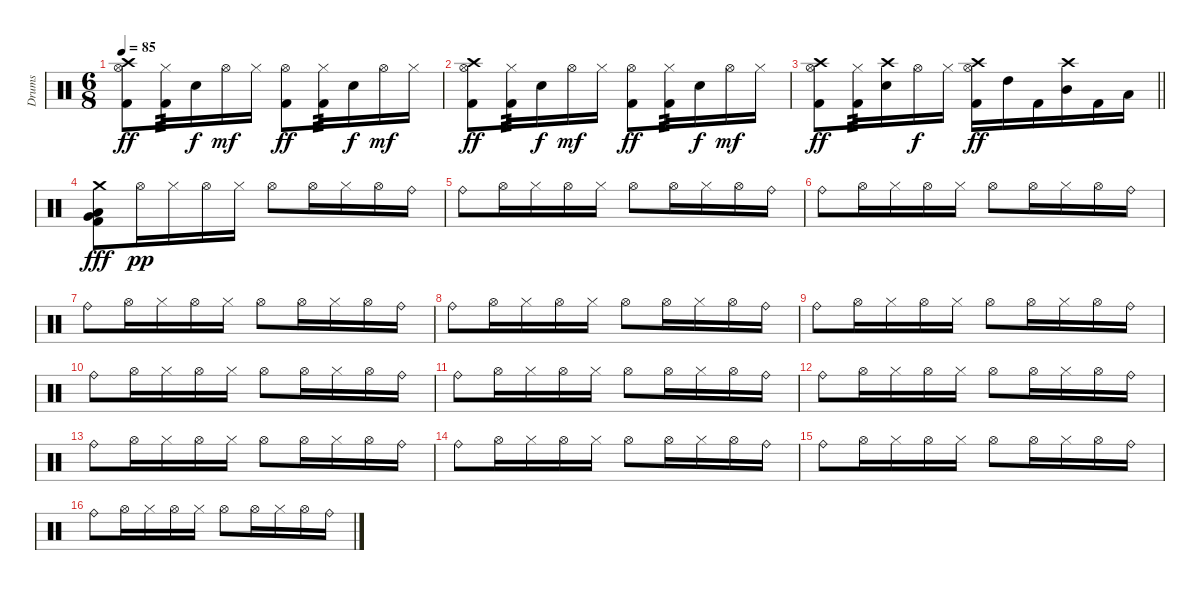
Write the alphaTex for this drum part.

\track ("Drums" "Drums") {instrument percussion}
\staff {score}
\articulation defaults
\ts (6 8)
\tempo 85
\clef neutral
\ks c
("Crash high (hit)" "Hi-Hat (open)" "Kick (hit) 2").8{dy ff} ("Hi-Hat (closed)" "Kick (hit) 2").16{tp 3} "Snare (hit) 2".16{dy f} "Hi-Hat (open)".16{dy mf} "Hi-Hat (closed)".16 ("Hi-Hat (open)" "Kick (hit) 2").8{dy ff} ("Hi-Hat (closed)" "Kick (hit) 2").16{tp 3} "Snare (hit) 2".16{dy f} "Hi-Hat (open)".16{dy mf} "Hi-Hat (closed)".16 |
("Crash high (hit)" "Hi-Hat (open)" "Kick (hit) 2").8{dy ff} ("Hi-Hat (closed)" "Kick (hit) 2").16{tp 3} "Snare (hit) 2".16{dy f} "Hi-Hat (open)".16{dy mf} "Hi-Hat (closed)".16 ("Hi-Hat (open)" "Kick (hit) 2").8{dy ff} ("Hi-Hat (closed)" "Kick (hit) 2").16{tp 3} "Snare (hit) 2".16{dy f} "Hi-Hat (open)".16{dy mf} "Hi-Hat (closed)".16 |
\barLineRight lightlight
("Crash high (hit)" "Hi-Hat (open)" "Kick (hit) 2").8{dy ff} ("Hi-Hat (closed)" "Kick (hit) 2").16{tp 3} ("Crash high (hit)" "Snare (hit) 2").16 "Hi-Hat (open)".16{dy f} "Hi-Hat (closed)".16 ("Crash high (hit)" "Hi-Hat (open)" "Kick (hit) 2").16{dy ff} "High Tom (hit)".16 "Kick (hit) 2".16 ("Crash high (hit)" "Mid Tom (hit)").16 "Kick (hit) 2".16 "Low Tom (hit)".16 |
\section ("" "")
("Crash medium (hit)" "Very Low Tom (hit)" "Low Tom (hit)" "Kick (hit) 2").8{dy fff} "Hi-Hat (open)".16{dy pp} "Hi-Hat (closed)".16 "Hi-Hat (open)".16 "Hi-Hat (closed)".16 "Hi-Hat (open)".8 "Hi-Hat (open)".16 "Hi-Hat (closed)".16 "Hi-Hat (open)".16 "Ride (bell)".16 |
"Ride (bell)".8 "Hi-Hat (open)".16 "Hi-Hat (closed)".16 "Hi-Hat (open)".16 "Hi-Hat (closed)".16 "Hi-Hat (open)".8 "Hi-Hat (open)".16 "Hi-Hat (closed)".16 "Hi-Hat (open)".16 "Ride (bell)".16 |
"Ride (bell)".8 "Hi-Hat (open)".16 "Hi-Hat (closed)".16 "Hi-Hat (open)".16 "Hi-Hat (closed)".16 "Hi-Hat (open)".8 "Hi-Hat (open)".16 "Hi-Hat (closed)".16 "Hi-Hat (open)".16 "Ride (bell)".16 |
"Ride (bell)".8 "Hi-Hat (open)".16 "Hi-Hat (closed)".16 "Hi-Hat (open)".16 "Hi-Hat (closed)".16 "Hi-Hat (open)".8 "Hi-Hat (open)".16 "Hi-Hat (closed)".16 "Hi-Hat (open)".16 "Ride (bell)".16 |
"Ride (bell)".8 "Hi-Hat (open)".16 "Hi-Hat (closed)".16 "Hi-Hat (open)".16 "Hi-Hat (closed)".16 "Hi-Hat (open)".8 "Hi-Hat (open)".16 "Hi-Hat (closed)".16 "Hi-Hat (open)".16 "Ride (bell)".16 |
"Ride (bell)".8 "Hi-Hat (open)".16 "Hi-Hat (closed)".16 "Hi-Hat (open)".16 "Hi-Hat (closed)".16 "Hi-Hat (open)".8 "Hi-Hat (open)".16 "Hi-Hat (closed)".16 "Hi-Hat (open)".16 "Ride (bell)".16 |
"Ride (bell)".8 "Hi-Hat (open)".16 "Hi-Hat (closed)".16 "Hi-Hat (open)".16 "Hi-Hat (closed)".16 "Hi-Hat (open)".8 "Hi-Hat (open)".16 "Hi-Hat (closed)".16 "Hi-Hat (open)".16 "Ride (bell)".16 |
"Ride (bell)".8 "Hi-Hat (open)".16 "Hi-Hat (closed)".16 "Hi-Hat (open)".16 "Hi-Hat (closed)".16 "Hi-Hat (open)".8 "Hi-Hat (open)".16 "Hi-Hat (closed)".16 "Hi-Hat (open)".16 "Ride (bell)".16 |
"Ride (bell)".8 "Hi-Hat (open)".16 "Hi-Hat (closed)".16 "Hi-Hat (open)".16 "Hi-Hat (closed)".16 "Hi-Hat (open)".8 "Hi-Hat (open)".16 "Hi-Hat (closed)".16 "Hi-Hat (open)".16 "Ride (bell)".16 |
"Ride (bell)".8 "Hi-Hat (open)".16 "Hi-Hat (closed)".16 "Hi-Hat (open)".16 "Hi-Hat (closed)".16 "Hi-Hat (open)".8 "Hi-Hat (open)".16 "Hi-Hat (closed)".16 "Hi-Hat (open)".16 "Ride (bell)".16 |
"Ride (bell)".8 "Hi-Hat (open)".16 "Hi-Hat (closed)".16 "Hi-Hat (open)".16 "Hi-Hat (closed)".16 "Hi-Hat (open)".8 "Hi-Hat (open)".16 "Hi-Hat (closed)".16 "Hi-Hat (open)".16 "Ride (bell)".16 |
"Ride (bell)".8 "Hi-Hat (open)".16 "Hi-Hat (closed)".16 "Hi-Hat (open)".16 "Hi-Hat (closed)".16 "Hi-Hat (open)".8 "Hi-Hat (open)".16 "Hi-Hat (closed)".16 "Hi-Hat (open)".16 "Ride (bell)".16 |
"Ride (bell)".8 "Hi-Hat (open)".16 "Hi-Hat (closed)".16 "Hi-Hat (open)".16 "Hi-Hat (closed)".16 "Hi-Hat (open)".8 "Hi-Hat (open)".16 "Hi-Hat (closed)".16 "Hi-Hat (open)".16 "Ride (bell)".16
